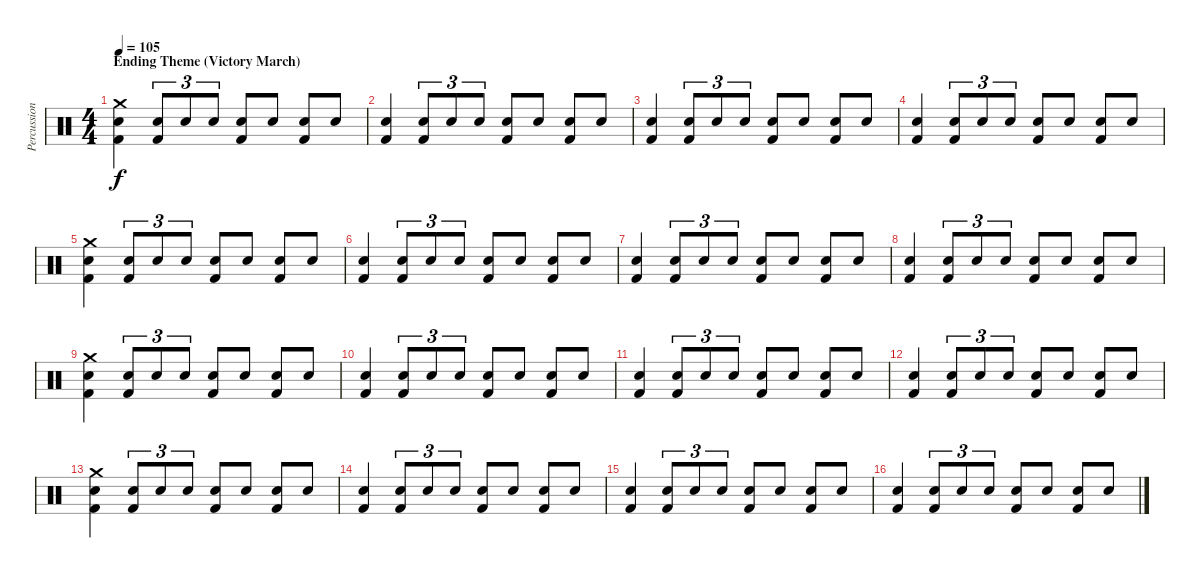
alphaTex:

\track ("Percussion" "Percussion") {instrument percussion}
\staff {score}
\articulation defaults
\ts (4 4)
\section ("" "Ending Theme (Victory March)")
\tempo 105
\clef neutral
\ks c
("Crash medium (hit)" "Electric Snare (hit)" "Kick (hit) 2").4{dy f} ("Electric Snare (hit)" "Kick (hit) 2").8{tu (3 2)} "Electric Snare (hit)".8{tu (3 2)} "Electric Snare (hit)".8{tu (3 2)} ("Electric Snare (hit)" "Kick (hit) 2").8 "Electric Snare (hit)".8 ("Electric Snare (hit)" "Kick (hit) 2").8 "Electric Snare (hit)".8 |
("Electric Snare (hit)" "Kick (hit) 2").4 ("Electric Snare (hit)" "Kick (hit) 2").8{tu (3 2)} "Electric Snare (hit)".8{tu (3 2)} "Electric Snare (hit)".8{tu (3 2)} ("Electric Snare (hit)" "Kick (hit) 2").8 "Electric Snare (hit)".8 ("Electric Snare (hit)" "Kick (hit) 2").8 "Electric Snare (hit)".8 |
("Electric Snare (hit)" "Kick (hit) 2").4 ("Electric Snare (hit)" "Kick (hit) 2").8{tu (3 2)} "Electric Snare (hit)".8{tu (3 2)} "Electric Snare (hit)".8{tu (3 2)} ("Electric Snare (hit)" "Kick (hit) 2").8 "Electric Snare (hit)".8 ("Electric Snare (hit)" "Kick (hit) 2").8 "Electric Snare (hit)".8 |
("Electric Snare (hit)" "Kick (hit) 2").4 ("Electric Snare (hit)" "Kick (hit) 2").8{tu (3 2)} "Electric Snare (hit)".8{tu (3 2)} "Electric Snare (hit)".8{tu (3 2)} ("Electric Snare (hit)" "Kick (hit) 2").8 "Electric Snare (hit)".8 ("Electric Snare (hit)" "Kick (hit) 2").8 "Electric Snare (hit)".8 |
("Crash medium (hit)" "Electric Snare (hit)" "Kick (hit) 2").4 ("Electric Snare (hit)" "Kick (hit) 2").8{tu (3 2)} "Electric Snare (hit)".8{tu (3 2)} "Electric Snare (hit)".8{tu (3 2)} ("Electric Snare (hit)" "Kick (hit) 2").8 "Electric Snare (hit)".8 ("Electric Snare (hit)" "Kick (hit) 2").8 "Electric Snare (hit)".8 |
("Electric Snare (hit)" "Kick (hit) 2").4 ("Electric Snare (hit)" "Kick (hit) 2").8{tu (3 2)} "Electric Snare (hit)".8{tu (3 2)} "Electric Snare (hit)".8{tu (3 2)} ("Electric Snare (hit)" "Kick (hit) 2").8 "Electric Snare (hit)".8 ("Electric Snare (hit)" "Kick (hit) 2").8 "Electric Snare (hit)".8 |
("Electric Snare (hit)" "Kick (hit) 2").4 ("Electric Snare (hit)" "Kick (hit) 2").8{tu (3 2)} "Electric Snare (hit)".8{tu (3 2)} "Electric Snare (hit)".8{tu (3 2)} ("Electric Snare (hit)" "Kick (hit) 2").8 "Electric Snare (hit)".8 ("Electric Snare (hit)" "Kick (hit) 2").8 "Electric Snare (hit)".8 |
("Electric Snare (hit)" "Kick (hit) 2").4 ("Electric Snare (hit)" "Kick (hit) 2").8{tu (3 2)} "Electric Snare (hit)".8{tu (3 2)} "Electric Snare (hit)".8{tu (3 2)} ("Electric Snare (hit)" "Kick (hit) 2").8 "Electric Snare (hit)".8 ("Electric Snare (hit)" "Kick (hit) 2").8 "Electric Snare (hit)".8 |
("Crash medium (hit)" "Electric Snare (hit)" "Kick (hit) 2").4 ("Electric Snare (hit)" "Kick (hit) 2").8{tu (3 2)} "Electric Snare (hit)".8{tu (3 2)} "Electric Snare (hit)".8{tu (3 2)} ("Electric Snare (hit)" "Kick (hit) 2").8 "Electric Snare (hit)".8 ("Electric Snare (hit)" "Kick (hit) 2").8 "Electric Snare (hit)".8 |
("Electric Snare (hit)" "Kick (hit) 2").4 ("Electric Snare (hit)" "Kick (hit) 2").8{tu (3 2)} "Electric Snare (hit)".8{tu (3 2)} "Electric Snare (hit)".8{tu (3 2)} ("Electric Snare (hit)" "Kick (hit) 2").8 "Electric Snare (hit)".8 ("Electric Snare (hit)" "Kick (hit) 2").8 "Electric Snare (hit)".8 |
("Electric Snare (hit)" "Kick (hit) 2").4 ("Electric Snare (hit)" "Kick (hit) 2").8{tu (3 2)} "Electric Snare (hit)".8{tu (3 2)} "Electric Snare (hit)".8{tu (3 2)} ("Electric Snare (hit)" "Kick (hit) 2").8 "Electric Snare (hit)".8 ("Electric Snare (hit)" "Kick (hit) 2").8 "Electric Snare (hit)".8 |
("Electric Snare (hit)" "Kick (hit) 2").4 ("Electric Snare (hit)" "Kick (hit) 2").8{tu (3 2)} "Electric Snare (hit)".8{tu (3 2)} "Electric Snare (hit)".8{tu (3 2)} ("Electric Snare (hit)" "Kick (hit) 2").8 "Electric Snare (hit)".8 ("Electric Snare (hit)" "Kick (hit) 2").8 "Electric Snare (hit)".8 |
("Crash medium (hit)" "Electric Snare (hit)" "Kick (hit) 2").4 ("Electric Snare (hit)" "Kick (hit) 2").8{tu (3 2)} "Electric Snare (hit)".8{tu (3 2)} "Electric Snare (hit)".8{tu (3 2)} ("Electric Snare (hit)" "Kick (hit) 2").8 "Electric Snare (hit)".8 ("Electric Snare (hit)" "Kick (hit) 2").8 "Electric Snare (hit)".8 |
("Electric Snare (hit)" "Kick (hit) 2").4 ("Electric Snare (hit)" "Kick (hit) 2").8{tu (3 2)} "Electric Snare (hit)".8{tu (3 2)} "Electric Snare (hit)".8{tu (3 2)} ("Electric Snare (hit)" "Kick (hit) 2").8 "Electric Snare (hit)".8 ("Electric Snare (hit)" "Kick (hit) 2").8 "Electric Snare (hit)".8 |
("Electric Snare (hit)" "Kick (hit) 2").4 ("Electric Snare (hit)" "Kick (hit) 2").8{tu (3 2)} "Electric Snare (hit)".8{tu (3 2)} "Electric Snare (hit)".8{tu (3 2)} ("Electric Snare (hit)" "Kick (hit) 2").8 "Electric Snare (hit)".8 ("Electric Snare (hit)" "Kick (hit) 2").8 "Electric Snare (hit)".8 |
("Electric Snare (hit)" "Kick (hit) 2").4 ("Electric Snare (hit)" "Kick (hit) 2").8{tu (3 2)} "Electric Snare (hit)".8{tu (3 2)} "Electric Snare (hit)".8{tu (3 2)} ("Electric Snare (hit)" "Kick (hit) 2").8 "Electric Snare (hit)".8 ("Electric Snare (hit)" "Kick (hit) 2").8 "Electric Snare (hit)".8
